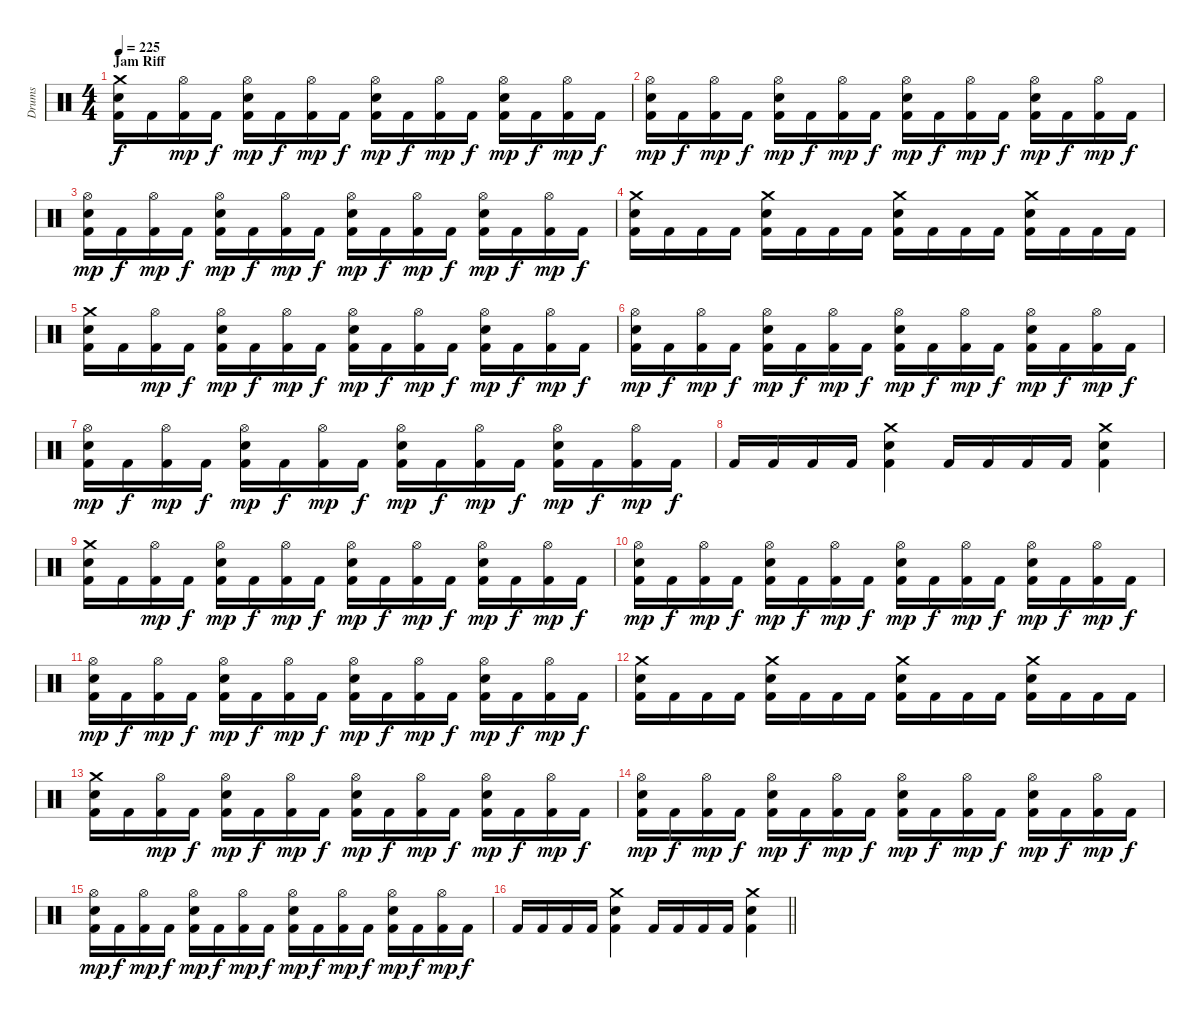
\track ("Drums" "Drums") {instrument percussion}
\staff {score}
\articulation defaults
\ts (4 4)
\section ("" "Jam Riff")
\tempo 225
\clef neutral
\ks c
("Crash medium (hit)" "Snare (hit) 2" "Kick (hit) 2").16{dy f} "Kick (hit) 2".16 ("Hi-Hat (open)" "Kick (hit) 2").16{dy mp} "Kick (hit) 2".16{dy f} ("Hi-Hat (open)" "Snare (hit) 2" "Kick (hit) 2").16{dy mp} "Kick (hit) 2".16{dy f} ("Hi-Hat (open)" "Kick (hit) 2").16{dy mp} "Kick (hit) 2".16{dy f} ("Hi-Hat (open)" "Snare (hit) 2" "Kick (hit) 2").16{dy mp} "Kick (hit) 2".16{dy f} ("Hi-Hat (open)" "Kick (hit) 2").16{dy mp} "Kick (hit) 2".16{dy f} ("Hi-Hat (open)" "Snare (hit) 2" "Kick (hit) 2").16{dy mp} "Kick (hit) 2".16{dy f} ("Hi-Hat (open)" "Kick (hit) 2").16{dy mp} "Kick (hit) 2".16{dy f} |
("Hi-Hat (open)" "Snare (hit) 2" "Kick (hit) 2").16{dy mp} "Kick (hit) 2".16{dy f} ("Hi-Hat (open)" "Kick (hit) 2").16{dy mp} "Kick (hit) 2".16{dy f} ("Hi-Hat (open)" "Snare (hit) 2" "Kick (hit) 2").16{dy mp} "Kick (hit) 2".16{dy f} ("Hi-Hat (open)" "Kick (hit) 2").16{dy mp} "Kick (hit) 2".16{dy f} ("Hi-Hat (open)" "Snare (hit) 2" "Kick (hit) 2").16{dy mp} "Kick (hit) 2".16{dy f} ("Hi-Hat (open)" "Kick (hit) 2").16{dy mp} "Kick (hit) 2".16{dy f} ("Hi-Hat (open)" "Snare (hit) 2" "Kick (hit) 2").16{dy mp} "Kick (hit) 2".16{dy f} ("Hi-Hat (open)" "Kick (hit) 2").16{dy mp} "Kick (hit) 2".16{dy f} |
("Hi-Hat (open)" "Snare (hit) 2" "Kick (hit) 2").16{dy mp} "Kick (hit) 2".16{dy f} ("Hi-Hat (open)" "Kick (hit) 2").16{dy mp} "Kick (hit) 2".16{dy f} ("Hi-Hat (open)" "Snare (hit) 2" "Kick (hit) 2").16{dy mp} "Kick (hit) 2".16{dy f} ("Hi-Hat (open)" "Kick (hit) 2").16{dy mp} "Kick (hit) 2".16{dy f} ("Hi-Hat (open)" "Snare (hit) 2" "Kick (hit) 2").16{dy mp} "Kick (hit) 2".16{dy f} ("Hi-Hat (open)" "Kick (hit) 2").16{dy mp} "Kick (hit) 2".16{dy f} ("Hi-Hat (open)" "Snare (hit) 2" "Kick (hit) 2").16{dy mp} "Kick (hit) 2".16{dy f} ("Hi-Hat (open)" "Kick (hit) 2").16{dy mp} "Kick (hit) 2".16{dy f} |
("Crash medium (hit)" "Snare (hit) 2" "Kick (hit) 2").16 "Kick (hit) 2".16 "Kick (hit) 2".16 "Kick (hit) 2".16 ("Crash medium (hit)" "Snare (hit) 2" "Kick (hit) 2").16 "Kick (hit) 2".16 "Kick (hit) 2".16 "Kick (hit) 2".16 ("Crash medium (hit)" "Snare (hit) 2" "Kick (hit) 2").16 "Kick (hit) 2".16 "Kick (hit) 2".16 "Kick (hit) 2".16 ("Crash medium (hit)" "Snare (hit) 2" "Kick (hit) 2").16 "Kick (hit) 2".16 "Kick (hit) 2".16 "Kick (hit) 2".16 |
("Crash medium (hit)" "Snare (hit) 2" "Kick (hit) 2").16 "Kick (hit) 2".16 ("Hi-Hat (open)" "Kick (hit) 2").16{dy mp} "Kick (hit) 2".16{dy f} ("Hi-Hat (open)" "Snare (hit) 2" "Kick (hit) 2").16{dy mp} "Kick (hit) 2".16{dy f} ("Hi-Hat (open)" "Kick (hit) 2").16{dy mp} "Kick (hit) 2".16{dy f} ("Hi-Hat (open)" "Snare (hit) 2" "Kick (hit) 2").16{dy mp} "Kick (hit) 2".16{dy f} ("Hi-Hat (open)" "Kick (hit) 2").16{dy mp} "Kick (hit) 2".16{dy f} ("Hi-Hat (open)" "Snare (hit) 2" "Kick (hit) 2").16{dy mp} "Kick (hit) 2".16{dy f} ("Hi-Hat (open)" "Kick (hit) 2").16{dy mp} "Kick (hit) 2".16{dy f} |
("Hi-Hat (open)" "Snare (hit) 2" "Kick (hit) 2").16{dy mp} "Kick (hit) 2".16{dy f} ("Hi-Hat (open)" "Kick (hit) 2").16{dy mp} "Kick (hit) 2".16{dy f} ("Hi-Hat (open)" "Snare (hit) 2" "Kick (hit) 2").16{dy mp} "Kick (hit) 2".16{dy f} ("Hi-Hat (open)" "Kick (hit) 2").16{dy mp} "Kick (hit) 2".16{dy f} ("Hi-Hat (open)" "Snare (hit) 2" "Kick (hit) 2").16{dy mp} "Kick (hit) 2".16{dy f} ("Hi-Hat (open)" "Kick (hit) 2").16{dy mp} "Kick (hit) 2".16{dy f} ("Hi-Hat (open)" "Snare (hit) 2" "Kick (hit) 2").16{dy mp} "Kick (hit) 2".16{dy f} ("Hi-Hat (open)" "Kick (hit) 2").16{dy mp} "Kick (hit) 2".16{dy f} |
("Hi-Hat (open)" "Snare (hit) 2" "Kick (hit) 2").16{dy mp} "Kick (hit) 2".16{dy f} ("Hi-Hat (open)" "Kick (hit) 2").16{dy mp} "Kick (hit) 2".16{dy f} ("Hi-Hat (open)" "Snare (hit) 2" "Kick (hit) 2").16{dy mp} "Kick (hit) 2".16{dy f} ("Hi-Hat (open)" "Kick (hit) 2").16{dy mp} "Kick (hit) 2".16{dy f} ("Hi-Hat (open)" "Snare (hit) 2" "Kick (hit) 2").16{dy mp} "Kick (hit) 2".16{dy f} ("Hi-Hat (open)" "Kick (hit) 2").16{dy mp} "Kick (hit) 2".16{dy f} ("Hi-Hat (open)" "Snare (hit) 2" "Kick (hit) 2").16{dy mp} "Kick (hit) 2".16{dy f} ("Hi-Hat (open)" "Kick (hit) 2").16{dy mp} "Kick (hit) 2".16{dy f} |
"Kick (hit) 2".16 "Kick (hit) 2".16 "Kick (hit) 2".16 "Kick (hit) 2".16 ("Crash medium (hit)" "Snare (hit) 2" "Kick (hit) 2").4 "Kick (hit) 2".16 "Kick (hit) 2".16 "Kick (hit) 2".16 "Kick (hit) 2".16 ("Crash medium (hit)" "Snare (hit) 2" "Kick (hit) 2").4 |
("Crash medium (hit)" "Snare (hit) 2" "Kick (hit) 2").16 "Kick (hit) 2".16 ("Hi-Hat (open)" "Kick (hit) 2").16{dy mp} "Kick (hit) 2".16{dy f} ("Hi-Hat (open)" "Snare (hit) 2" "Kick (hit) 2").16{dy mp} "Kick (hit) 2".16{dy f} ("Hi-Hat (open)" "Kick (hit) 2").16{dy mp} "Kick (hit) 2".16{dy f} ("Hi-Hat (open)" "Snare (hit) 2" "Kick (hit) 2").16{dy mp} "Kick (hit) 2".16{dy f} ("Hi-Hat (open)" "Kick (hit) 2").16{dy mp} "Kick (hit) 2".16{dy f} ("Hi-Hat (open)" "Snare (hit) 2" "Kick (hit) 2").16{dy mp} "Kick (hit) 2".16{dy f} ("Hi-Hat (open)" "Kick (hit) 2").16{dy mp} "Kick (hit) 2".16{dy f} |
("Hi-Hat (open)" "Snare (hit) 2" "Kick (hit) 2").16{dy mp} "Kick (hit) 2".16{dy f} ("Hi-Hat (open)" "Kick (hit) 2").16{dy mp} "Kick (hit) 2".16{dy f} ("Hi-Hat (open)" "Snare (hit) 2" "Kick (hit) 2").16{dy mp} "Kick (hit) 2".16{dy f} ("Hi-Hat (open)" "Kick (hit) 2").16{dy mp} "Kick (hit) 2".16{dy f} ("Hi-Hat (open)" "Snare (hit) 2" "Kick (hit) 2").16{dy mp} "Kick (hit) 2".16{dy f} ("Hi-Hat (open)" "Kick (hit) 2").16{dy mp} "Kick (hit) 2".16{dy f} ("Hi-Hat (open)" "Snare (hit) 2" "Kick (hit) 2").16{dy mp} "Kick (hit) 2".16{dy f} ("Hi-Hat (open)" "Kick (hit) 2").16{dy mp} "Kick (hit) 2".16{dy f} |
("Hi-Hat (open)" "Snare (hit) 2" "Kick (hit) 2").16{dy mp} "Kick (hit) 2".16{dy f} ("Hi-Hat (open)" "Kick (hit) 2").16{dy mp} "Kick (hit) 2".16{dy f} ("Hi-Hat (open)" "Snare (hit) 2" "Kick (hit) 2").16{dy mp} "Kick (hit) 2".16{dy f} ("Hi-Hat (open)" "Kick (hit) 2").16{dy mp} "Kick (hit) 2".16{dy f} ("Hi-Hat (open)" "Snare (hit) 2" "Kick (hit) 2").16{dy mp} "Kick (hit) 2".16{dy f} ("Hi-Hat (open)" "Kick (hit) 2").16{dy mp} "Kick (hit) 2".16{dy f} ("Hi-Hat (open)" "Snare (hit) 2" "Kick (hit) 2").16{dy mp} "Kick (hit) 2".16{dy f} ("Hi-Hat (open)" "Kick (hit) 2").16{dy mp} "Kick (hit) 2".16{dy f} |
("Crash medium (hit)" "Snare (hit) 2" "Kick (hit) 2").16 "Kick (hit) 2".16 "Kick (hit) 2".16 "Kick (hit) 2".16 ("Crash medium (hit)" "Snare (hit) 2" "Kick (hit) 2").16 "Kick (hit) 2".16 "Kick (hit) 2".16 "Kick (hit) 2".16 ("Crash medium (hit)" "Snare (hit) 2" "Kick (hit) 2").16 "Kick (hit) 2".16 "Kick (hit) 2".16 "Kick (hit) 2".16 ("Crash medium (hit)" "Snare (hit) 2" "Kick (hit) 2").16 "Kick (hit) 2".16 "Kick (hit) 2".16 "Kick (hit) 2".16 |
("Crash medium (hit)" "Snare (hit) 2" "Kick (hit) 2").16 "Kick (hit) 2".16 ("Hi-Hat (open)" "Kick (hit) 2").16{dy mp} "Kick (hit) 2".16{dy f} ("Hi-Hat (open)" "Snare (hit) 2" "Kick (hit) 2").16{dy mp} "Kick (hit) 2".16{dy f} ("Hi-Hat (open)" "Kick (hit) 2").16{dy mp} "Kick (hit) 2".16{dy f} ("Hi-Hat (open)" "Snare (hit) 2" "Kick (hit) 2").16{dy mp} "Kick (hit) 2".16{dy f} ("Hi-Hat (open)" "Kick (hit) 2").16{dy mp} "Kick (hit) 2".16{dy f} ("Hi-Hat (open)" "Snare (hit) 2" "Kick (hit) 2").16{dy mp} "Kick (hit) 2".16{dy f} ("Hi-Hat (open)" "Kick (hit) 2").16{dy mp} "Kick (hit) 2".16{dy f} |
("Hi-Hat (open)" "Snare (hit) 2" "Kick (hit) 2").16{dy mp} "Kick (hit) 2".16{dy f} ("Hi-Hat (open)" "Kick (hit) 2").16{dy mp} "Kick (hit) 2".16{dy f} ("Hi-Hat (open)" "Snare (hit) 2" "Kick (hit) 2").16{dy mp} "Kick (hit) 2".16{dy f} ("Hi-Hat (open)" "Kick (hit) 2").16{dy mp} "Kick (hit) 2".16{dy f} ("Hi-Hat (open)" "Snare (hit) 2" "Kick (hit) 2").16{dy mp} "Kick (hit) 2".16{dy f} ("Hi-Hat (open)" "Kick (hit) 2").16{dy mp} "Kick (hit) 2".16{dy f} ("Hi-Hat (open)" "Snare (hit) 2" "Kick (hit) 2").16{dy mp} "Kick (hit) 2".16{dy f} ("Hi-Hat (open)" "Kick (hit) 2").16{dy mp} "Kick (hit) 2".16{dy f} |
("Hi-Hat (open)" "Snare (hit) 2" "Kick (hit) 2").16{dy mp} "Kick (hit) 2".16{dy f} ("Hi-Hat (open)" "Kick (hit) 2").16{dy mp} "Kick (hit) 2".16{dy f} ("Hi-Hat (open)" "Snare (hit) 2" "Kick (hit) 2").16{dy mp} "Kick (hit) 2".16{dy f} ("Hi-Hat (open)" "Kick (hit) 2").16{dy mp} "Kick (hit) 2".16{dy f} ("Hi-Hat (open)" "Snare (hit) 2" "Kick (hit) 2").16{dy mp} "Kick (hit) 2".16{dy f} ("Hi-Hat (open)" "Kick (hit) 2").16{dy mp} "Kick (hit) 2".16{dy f} ("Hi-Hat (open)" "Snare (hit) 2" "Kick (hit) 2").16{dy mp} "Kick (hit) 2".16{dy f} ("Hi-Hat (open)" "Kick (hit) 2").16{dy mp} "Kick (hit) 2".16{dy f} |
\barLineRight lightlight "Kick (hit) 2".16 "Kick (hit) 2".16 "Kick (hit) 2".16 "Kick (hit) 2".16
("Crash medium (hit)" "Snare (hit) 2" "Kick (hit) 2").4 "Kick (hit) 2".16 "Kick (hit) 2".16 "Kick (hit) 2".16 "Kick (hit) 2".16 ("Crash medium (hit)" "Snare (hit) 2" "Kick (hit) 2").4
